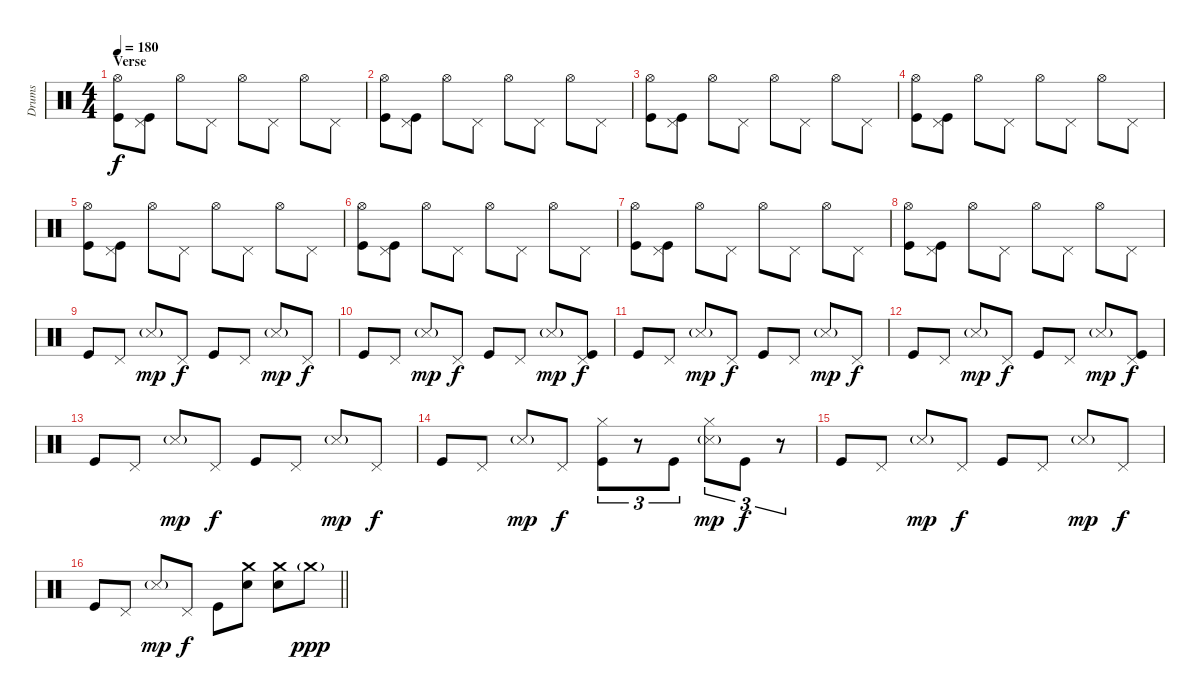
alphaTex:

\track ("Drums" "Drums") {instrument percussion}
\staff {score}
\articulation defaults
\ts (4 4)
\section ("" "Verse ")
\tempo 180
\clef neutral
\ks c
("Hi-Hat (open)" "Kick (hit)").8{dy f} ("Pedal Hi-Hat (hit)" "Kick (hit)").8 "Hi-Hat (open)".8 "Pedal Hi-Hat (hit)".8 "Hi-Hat (open)".8 "Pedal Hi-Hat (hit)".8 "Hi-Hat (open)".8 "Pedal Hi-Hat (hit)".8 |
("Hi-Hat (open)" "Kick (hit)").8 ("Pedal Hi-Hat (hit)" "Kick (hit)").8 "Hi-Hat (open)".8 "Pedal Hi-Hat (hit)".8 "Hi-Hat (open)".8 "Pedal Hi-Hat (hit)".8 "Hi-Hat (open)".8 "Pedal Hi-Hat (hit)".8 |
("Hi-Hat (open)" "Kick (hit)").8 ("Pedal Hi-Hat (hit)" "Kick (hit)").8 "Hi-Hat (open)".8 "Pedal Hi-Hat (hit)".8 "Hi-Hat (open)".8 "Pedal Hi-Hat (hit)".8 "Hi-Hat (open)".8 "Pedal Hi-Hat (hit)".8 |
("Hi-Hat (open)" "Kick (hit)").8 ("Pedal Hi-Hat (hit)" "Kick (hit)").8 "Hi-Hat (open)".8 "Pedal Hi-Hat (hit)".8 "Hi-Hat (open)".8 "Pedal Hi-Hat (hit)".8 "Hi-Hat (open)".8 "Pedal Hi-Hat (hit)".8 |
("Hi-Hat (open)" "Kick (hit)").8 ("Pedal Hi-Hat (hit)" "Kick (hit)").8 "Hi-Hat (open)".8 "Pedal Hi-Hat (hit)".8 "Hi-Hat (open)".8 "Pedal Hi-Hat (hit)".8 "Hi-Hat (open)".8 "Pedal Hi-Hat (hit)".8 |
("Hi-Hat (open)" "Kick (hit)").8 ("Pedal Hi-Hat (hit)" "Kick (hit)").8 "Hi-Hat (open)".8 "Pedal Hi-Hat (hit)".8 "Hi-Hat (open)".8 "Pedal Hi-Hat (hit)".8 "Hi-Hat (open)".8 "Pedal Hi-Hat (hit)".8 |
("Hi-Hat (open)" "Kick (hit)").8 ("Pedal Hi-Hat (hit)" "Kick (hit)").8 "Hi-Hat (open)".8 "Pedal Hi-Hat (hit)".8 "Hi-Hat (open)".8 "Pedal Hi-Hat (hit)".8 "Hi-Hat (open)".8 "Pedal Hi-Hat (hit)".8 |
("Hi-Hat (open)" "Kick (hit)").8 ("Pedal Hi-Hat (hit)" "Kick (hit)").8 "Hi-Hat (open)".8 "Pedal Hi-Hat (hit)".8 "Hi-Hat (open)".8 "Pedal Hi-Hat (hit)".8 "Hi-Hat (open)".8 "Pedal Hi-Hat (hit)".8 |
"Kick (hit)".8 "Pedal Hi-Hat (hit)".8 "Snare (side stick) 3"{g}.8{dy mp} "Pedal Hi-Hat (hit)".8{dy f} "Kick (hit)".8 "Pedal Hi-Hat (hit)".8 "Snare (side stick) 3"{g}.8{dy mp} "Pedal Hi-Hat (hit)".8{dy f} |
"Kick (hit)".8 "Pedal Hi-Hat (hit)".8 "Snare (side stick) 3"{g}.8{dy mp} "Pedal Hi-Hat (hit)".8{dy f} "Kick (hit)".8 "Pedal Hi-Hat (hit)".8 "Snare (side stick) 3"{g}.8{dy mp} ("Pedal Hi-Hat (hit)" "Kick (hit)").8{dy f} |
"Kick (hit)".8 "Pedal Hi-Hat (hit)".8 "Snare (side stick) 3"{g}.8{dy mp} "Pedal Hi-Hat (hit)".8{dy f} "Kick (hit)".8 "Pedal Hi-Hat (hit)".8 "Snare (side stick) 3"{g}.8{dy mp} "Pedal Hi-Hat (hit)".8{dy f} |
"Kick (hit)".8 "Pedal Hi-Hat (hit)".8 "Snare (side stick) 3"{g}.8{dy mp} "Pedal Hi-Hat (hit)".8{dy f} "Kick (hit)".8 "Pedal Hi-Hat (hit)".8 "Snare (side stick) 3"{g}.8{dy mp} ("Pedal Hi-Hat (hit)" "Kick (hit)").8{dy f} |
"Kick (hit)".8 "Pedal Hi-Hat (hit)".8 "Snare (side stick) 3"{g}.8{dy mp} "Pedal Hi-Hat (hit)".8{dy f} "Kick (hit)".8 "Pedal Hi-Hat (hit)".8 "Snare (side stick) 3"{g}.8{dy mp} "Pedal Hi-Hat (hit)".8{dy f} |
"Kick (hit)".8 "Pedal Hi-Hat (hit)".8 "Snare (side stick) 3"{g}.8{dy mp} "Pedal Hi-Hat (hit)".8{dy f} ("Hi-Hat (closed)" "Kick (hit)").8{tu (3 2)} r.8{tu (3 2)} "Kick (hit)".8{tu (3 2)} ("Hi-Hat (closed)" "Snare (side stick) 3"{g}).8{tu (3 2) dy mp} "Kick (hit)".8{tu (3 2) dy f} r.8{tu (3 2)} |
"Kick (hit)".8 "Pedal Hi-Hat (hit)".8 "Snare (side stick) 3"{g}.8{dy mp} "Pedal Hi-Hat (hit)".8{dy f} "Kick (hit)".8 "Pedal Hi-Hat (hit)".8 "Snare (side stick) 3"{g}.8{dy mp} "Pedal Hi-Hat (hit)".8{dy f} |
\barLineRight lightlight "Kick (hit)".8 "Pedal Hi-Hat (hit)".8 "Snare (side stick) 3"{g}.8{dy mp} "Pedal Hi-Hat (hit)".8{dy f} "Kick (hit)".8
("Crash medium (hit)" "Electric Snare (hit)").8 ("Crash medium (hit)" "Electric Snare (hit)").8 "Crash medium (hit)"{g}.8{dy ppp}
